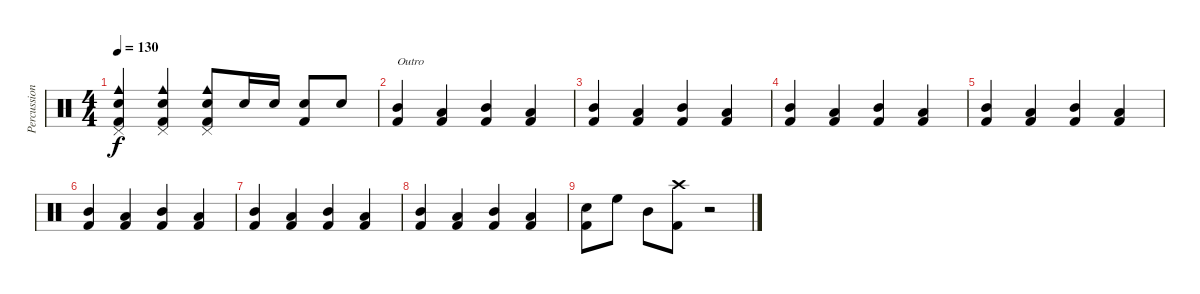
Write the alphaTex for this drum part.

\track ("Percussion" "Percussion") {instrument percussion}
\staff {score}
\articulation defaults
\ts (4 4)
\tempo 130
\clef neutral
\ks c
("Pedal Hi-Hat (hit)" "Cowbell medium (hit)" "Snare (hit) 2" "Kick (hit) 2").4{dy f} ("Pedal Hi-Hat (hit)" "Cowbell medium (hit)" "Snare (hit) 2" "Kick (hit) 2").4 ("Pedal Hi-Hat (hit)" "Cowbell medium (hit)" "Snare (hit) 2" "Kick (hit) 2").8 "Snare (hit) 2".16 "Snare (hit) 2".16 ("Snare (hit) 2" "Kick (hit) 2").8 "Snare (hit) 2".8 |
("Mid Tom (hit)" "Kick (hit) 2").4{txt "Outro"} ("Low Tom (hit)" "Kick (hit) 2").4 ("Mid Tom (hit)" "Kick (hit) 2").4 ("Low Tom (hit)" "Kick (hit) 2").4 |
("Mid Tom (hit)" "Kick (hit) 2").4 ("Low Tom (hit)" "Kick (hit) 2").4 ("Mid Tom (hit)" "Kick (hit) 2").4 ("Low Tom (hit)" "Kick (hit) 2").4 |
("Mid Tom (hit)" "Kick (hit) 2").4 ("Low Tom (hit)" "Kick (hit) 2").4 ("Mid Tom (hit)" "Kick (hit) 2").4 ("Low Tom (hit)" "Kick (hit) 2").4 |
("Mid Tom (hit)" "Kick (hit) 2").4 ("Low Tom (hit)" "Kick (hit) 2").4 ("Mid Tom (hit)" "Kick (hit) 2").4 ("Low Tom (hit)" "Kick (hit) 2").4 |
("Mid Tom (hit)" "Kick (hit) 2").4 ("Low Tom (hit)" "Kick (hit) 2").4 ("Mid Tom (hit)" "Kick (hit) 2").4 ("Low Tom (hit)" "Kick (hit) 2").4 |
("Mid Tom (hit)" "Kick (hit) 2").4 ("Low Tom (hit)" "Kick (hit) 2").4 ("Mid Tom (hit)" "Kick (hit) 2").4 ("Low Tom (hit)" "Kick (hit) 2").4 |
("Mid Tom (hit)" "Kick (hit) 2").4 ("Low Tom (hit)" "Kick (hit) 2").4 ("Mid Tom (hit)" "Kick (hit) 2").4 ("Low Tom (hit)" "Kick (hit) 2").4 |
("Snare (hit) 2" "Kick (hit) 2").8 "High Floor Tom (hit)".8 "Mid Tom (hit)".8 ("Crash high (hit)" "Kick (hit) 2").8 r.2
